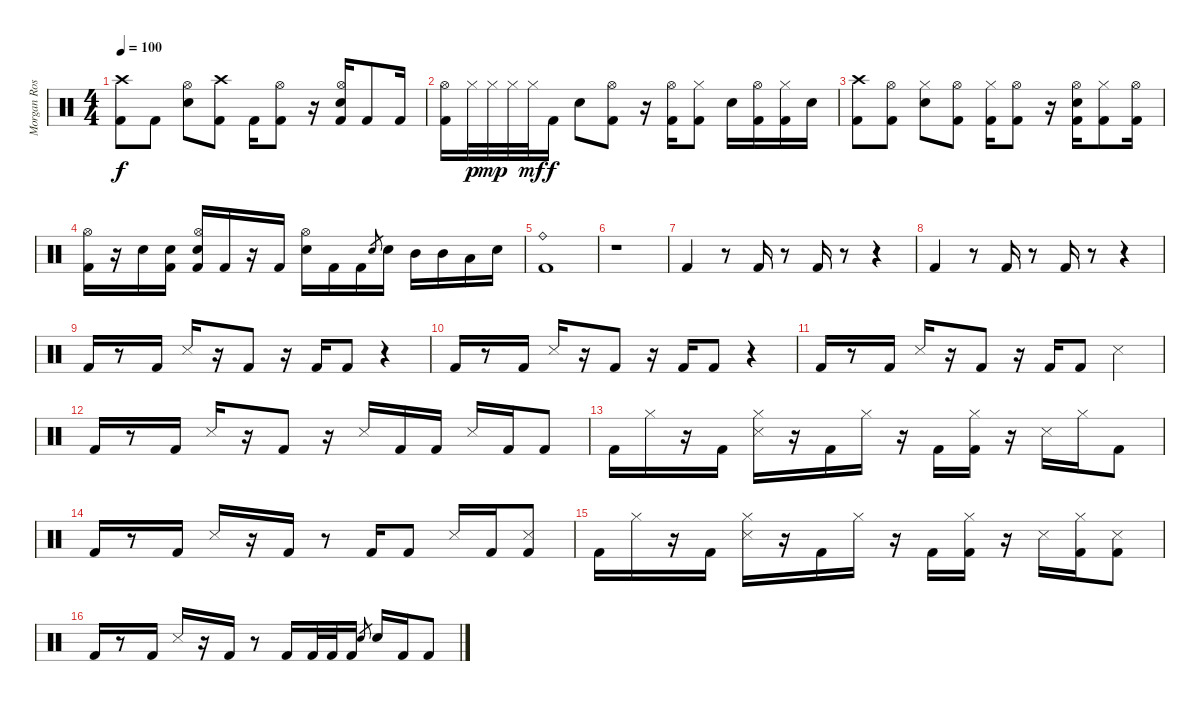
\track ("Morgan Rose - Drums" "Morgan Ros") {instrument percussion}
\staff {score}
\articulation defaults
\ts (4 4)
\tempo 100
\clef neutral
\ks c
("Crash high (hit)" "Kick (hit) 2").8{dy f} "Kick (hit) 2".8 ("Hi-Hat (open)" "Electric Snare (hit)").8 ("Crash high (hit)" "Kick (hit) 2").8 "Kick (hit) 2".16 ("Hi-Hat (open)" "Kick (hit) 2").8 r.16 ("Hi-Hat (open)" "Electric Snare (hit)" "Kick (hit) 2").16 "Kick (hit) 2".8 "Kick (hit) 2".16 |
("Hi-Hat (open)" "Kick (hit) 2").16 "Hi-Hat (closed)".32{dy p} "Hi-Hat (closed)".32{dy mp} "Hi-Hat (closed)".32 "Hi-Hat (closed)".32{dy mf} "Kick (hit) 2".16{dy f} "Electric Snare (hit)".8 ("Hi-Hat (open)" "Kick (hit) 2").8 r.16 ("Hi-Hat (open)" "Kick (hit) 2").16 ("Hi-Hat (closed)" "Kick (hit) 2").8 "Electric Snare (hit)".16 ("Hi-Hat (open)" "Kick (hit) 2").16 ("Hi-Hat (closed)" "Kick (hit) 2").16 "Electric Snare (hit)".16 |
("Crash high (hit)" "Kick (hit) 2").8 ("Hi-Hat (open)" "Kick (hit) 2").8 ("Hi-Hat (closed)" "Electric Snare (hit)").8 ("Hi-Hat (open)" "Kick (hit) 2").8 ("Hi-Hat (closed)" "Kick (hit) 2").16 ("Hi-Hat (open)" "Kick (hit) 2").8 r.16 ("Hi-Hat (open)" "Electric Snare (hit)" "Kick (hit) 2").16 ("Hi-Hat (closed)" "Kick (hit) 2").8 ("Hi-Hat (open)" "Kick (hit) 2").16 |
("Hi-Hat (open)" "Kick (hit) 2").16 r.16 "Electric Snare (hit)".16 ("Electric Snare (hit)" "Kick (hit) 2").16 ("Hi-Hat (open)" "Electric Snare (hit)" "Kick (hit) 2").16 "Kick (hit) 2".16 r.16 "Kick (hit) 2".16 ("Hi-Hat (open)" "Electric Snare (hit)").16 "Kick (hit) 2".16 "Kick (hit) 2".16 "Electric Snare (hit)".8{gr} "Electric Snare (hit)".16 "Mid Tom (hit)".16 "Mid Tom (hit)".16 "Low Tom (hit)".16 "Electric Snare (hit)".16 |
("Ride (bell)" "Kick (hit) 2").1 |
r.1 |
"Kick (hit) 2".4 r.8 "Kick (hit) 2".16 r.8 "Kick (hit) 2".16 r.8 r.4 |
"Kick (hit) 2".4 r.8 "Kick (hit) 2".16 r.8 "Kick (hit) 2".16 r.8 r.4 |
"Kick (hit) 2".16 r.8 "Kick (hit) 2".16 "Snare (side stick) 3".16 r.16 "Kick (hit) 2".8 r.16 "Kick (hit) 2".16 "Kick (hit) 2".8 r.4 |
"Kick (hit) 2".16 r.8 "Kick (hit) 2".16 "Snare (side stick) 3".16 r.16 "Kick (hit) 2".8 r.16 "Kick (hit) 2".16 "Kick (hit) 2".8 r.4 |
"Kick (hit) 2".16 r.8 "Kick (hit) 2".16 "Snare (side stick) 3".16 r.16 "Kick (hit) 2".8 r.16 "Kick (hit) 2".16 "Kick (hit) 2".8 "Snare (side stick) 3".4 |
"Kick (hit) 2".16 r.8 "Kick (hit) 2".16 "Snare (side stick) 3".16 r.16 "Kick (hit) 2".8 r.16 "Snare (side stick) 3".16 "Kick (hit) 2".16 "Kick (hit) 2".16 "Snare (side stick) 3".16 "Kick (hit) 2".16 "Kick (hit) 2".8 |
"Kick (hit) 2".16 "Hi-Hat (closed)".16 r.16 "Kick (hit) 2".16 ("Hi-Hat (closed)" "Snare (side stick) 3").16 r.16 "Kick (hit) 2".16 "Hi-Hat (closed)".16 r.16 "Kick (hit) 2".16 ("Hi-Hat (closed)" "Kick (hit) 2").16 r.16 "Snare (side stick) 3".16 "Hi-Hat (closed)".16 "Kick (hit) 2".8 |
"Kick (hit) 2".16 r.8 "Kick (hit) 2".16 "Snare (side stick) 3".16 r.16 "Kick (hit) 2".16 r.8 "Kick (hit) 2".16 "Kick (hit) 2".8 "Snare (side stick) 3".16 "Kick (hit) 2".16 ("Snare (side stick) 3" "Kick (hit) 2").8 |
"Kick (hit) 2".16 "Hi-Hat (closed)".16 r.16 "Kick (hit) 2".16 ("Hi-Hat (closed)" "Snare (side stick) 3").16 r.16 "Kick (hit) 2".16 "Hi-Hat (closed)".16 r.16 "Kick (hit) 2".16 ("Hi-Hat (closed)" "Kick (hit) 2").16 r.16 "Snare (side stick) 3".16 ("Hi-Hat (closed)" "Kick (hit) 2").16 ("Snare (side stick) 3" "Kick (hit) 2").8 |
"Kick (hit) 2".16 r.8 "Kick (hit) 2".16 "Snare (side stick) 3".16 r.16 "Kick (hit) 2".16 r.8 "Kick (hit) 2".16 "Kick (hit) 2".32 "Kick (hit) 2".32 "Kick (hit) 2".16 "Electric Snare (hit)".8{gr} "Electric Snare (hit)".16 "Kick (hit) 2".16 "Kick (hit) 2".8
